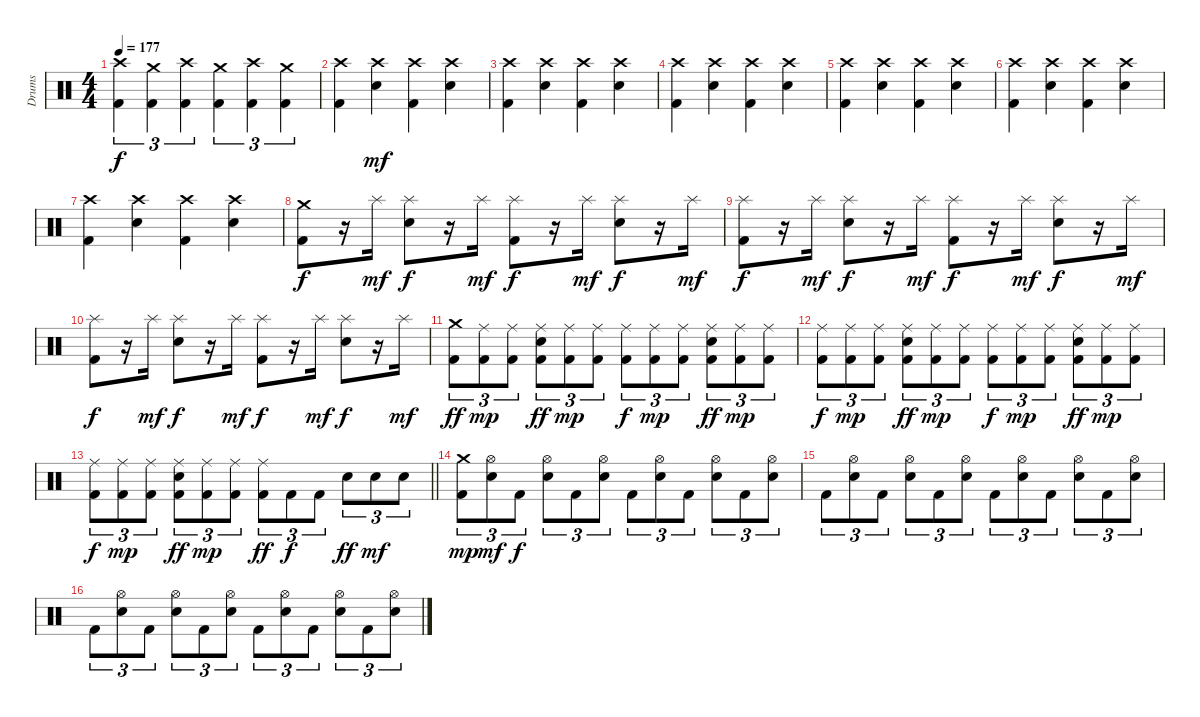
\track ("Drums" "Drums") {instrument percussion}
\staff {score}
\articulation defaults
\ts (4 4)
\tempo 177
\clef neutral
\ks c
("Crash high (hit)" "Kick (hit) 2").4{tu (3 2) dy f} ("Crash medium (hit)" "Kick (hit) 2").4{tu (3 2)} ("Crash high (hit)" "Kick (hit) 2").4{tu (3 2)} ("Crash medium (hit)" "Kick (hit) 2").4{tu (3 2)} ("Crash high (hit)" "Kick (hit) 2").4{tu (3 2)} ("Crash medium (hit)" "Kick (hit) 2").4{tu (3 2)} |
("Crash high (hit)" "Kick (hit) 2").4 ("Crash high (hit)" "Electric Snare (hit)").4{dy mf} ("Crash high (hit)" "Kick (hit) 2").4 ("Crash high (hit)" "Electric Snare (hit)").4 |
("Crash high (hit)" "Kick (hit) 2").4 ("Crash high (hit)" "Electric Snare (hit)").4 ("Crash high (hit)" "Kick (hit) 2").4 ("Crash high (hit)" "Electric Snare (hit)").4 |
("Crash high (hit)" "Kick (hit) 2").4 ("Crash high (hit)" "Electric Snare (hit)").4 ("Crash high (hit)" "Kick (hit) 2").4 ("Crash high (hit)" "Electric Snare (hit)").4 |
("Crash high (hit)" "Kick (hit) 2").4 ("Crash high (hit)" "Electric Snare (hit)").4 ("Crash high (hit)" "Kick (hit) 2").4 ("Crash high (hit)" "Electric Snare (hit)").4 |
("Crash high (hit)" "Kick (hit) 2").4 ("Crash high (hit)" "Electric Snare (hit)").4 ("Crash high (hit)" "Kick (hit) 2").4 ("Crash high (hit)" "Electric Snare (hit)").4 |
("Crash high (hit)" "Kick (hit) 2").4 ("Crash high (hit)" "Electric Snare (hit)").4 ("Crash high (hit)" "Kick (hit) 2").4 ("Crash high (hit)" "Electric Snare (hit)").4 |
("Crash medium (hit)" "Kick (hit) 2").8{dy f} r.16 "Splash (hit)".16{dy mf} ("Splash (hit)" "Electric Snare (hit)").8{dy f} r.16 "Splash (hit)".16{dy mf} ("Splash (hit)" "Kick (hit) 2").8{dy f} r.16 "Splash (hit)".16{dy mf} ("Splash (hit)" "Electric Snare (hit)").8{dy f} r.16 "Splash (hit)".16{dy mf} |
("Splash (hit)" "Kick (hit) 2").8{dy f} r.16 "Splash (hit)".16{dy mf} ("Splash (hit)" "Electric Snare (hit)").8{dy f} r.16 "Splash (hit)".16{dy mf} ("Splash (hit)" "Kick (hit) 2").8{dy f} r.16 "Splash (hit)".16{dy mf} ("Splash (hit)" "Electric Snare (hit)").8{dy f} r.16 "Splash (hit)".16{dy mf} |
("Splash (hit)" "Kick (hit) 2").8{dy f} r.16 "Splash (hit)".16{dy mf} ("Splash (hit)" "Electric Snare (hit)").8{dy f} r.16 "Splash (hit)".16{dy mf} ("Splash (hit)" "Kick (hit) 2").8{dy f} r.16 "Splash (hit)".16{dy mf} ("Splash (hit)" "Electric Snare (hit)").8{dy f} r.16 "Splash (hit)".16{dy mf} |
("Crash medium (hit)" "Kick (hit) 2").8{tu (3 2) dy ff} ("Ride (middle)" "Kick (hit) 2").8{tu (3 2) dy mp} ("Ride (middle)" "Kick (hit) 2").8{tu (3 2)} ("Ride (middle)" "Electric Snare (hit)" "Kick (hit) 2").8{tu (3 2) dy ff} ("Ride (middle)" "Kick (hit) 2").8{tu (3 2) dy mp} ("Ride (middle)" "Kick (hit) 2").8{tu (3 2)} ("Ride (middle)" "Kick (hit) 2").8{tu (3 2) dy f} ("Ride (middle)" "Kick (hit) 2").8{tu (3 2) dy mp} ("Ride (middle)" "Kick (hit) 2").8{tu (3 2)} ("Ride (middle)" "Electric Snare (hit)" "Kick (hit) 2").8{tu (3 2) dy ff} ("Ride (middle)" "Kick (hit) 2").8{tu (3 2) dy mp} ("Ride (middle)" "Kick (hit) 2").8{tu (3 2)} |
("Ride (middle)" "Kick (hit) 2").8{tu (3 2) dy f} ("Ride (middle)" "Kick (hit) 2").8{tu (3 2) dy mp} ("Ride (middle)" "Kick (hit) 2").8{tu (3 2)} ("Ride (middle)" "Electric Snare (hit)" "Kick (hit) 2").8{tu (3 2) dy ff} ("Ride (middle)" "Kick (hit) 2").8{tu (3 2) dy mp} ("Ride (middle)" "Kick (hit) 2").8{tu (3 2)} ("Ride (middle)" "Kick (hit) 2").8{tu (3 2) dy f} ("Ride (middle)" "Kick (hit) 2").8{tu (3 2) dy mp} ("Ride (middle)" "Kick (hit) 2").8{tu (3 2)} ("Ride (middle)" "Electric Snare (hit)" "Kick (hit) 2").8{tu (3 2) dy ff} ("Ride (middle)" "Kick (hit) 2").8{tu (3 2) dy mp} ("Ride (middle)" "Kick (hit) 2").8{tu (3 2)} |
\barLineRight lightlight
("Ride (middle)" "Kick (hit) 2").8{tu (3 2) dy f} ("Ride (middle)" "Kick (hit) 2").8{tu (3 2) dy mp} ("Ride (middle)" "Kick (hit) 2").8{tu (3 2)} ("Ride (middle)" "Electric Snare (hit)" "Kick (hit) 2").8{tu (3 2) dy ff} ("Ride (middle)" "Kick (hit) 2").8{tu (3 2) dy mp} ("Ride (middle)" "Kick (hit) 2").8{tu (3 2)} ("Ride (middle)" "Kick (hit) 2").8{tu (3 2) dy ff} "Kick (hit) 2".8{tu (3 2) dy f} "Kick (hit) 2".8{tu (3 2)} "Electric Snare (hit)".8{tu (3 2) dy ff} "Electric Snare (hit)".8{tu (3 2) dy mf} "Electric Snare (hit)".8{tu (3 2)} |
("Crash medium (hit)" "Kick (hit) 2").8{tu (3 2) dy mp} ("Hi-Hat (open)" "Electric Snare (hit)").8{tu (3 2) dy mf} "Kick (hit) 2".8{tu (3 2) dy f} ("Hi-Hat (open)" "Electric Snare (hit)").8{tu (3 2)} "Kick (hit) 2".8{tu (3 2)} ("Hi-Hat (open)" "Electric Snare (hit)").8{tu (3 2)} "Kick (hit) 2".8{tu (3 2)} ("Hi-Hat (open)" "Electric Snare (hit)").8{tu (3 2)} "Kick (hit) 2".8{tu (3 2)} ("Hi-Hat (open)" "Electric Snare (hit)").8{tu (3 2)} "Kick (hit) 2".8{tu (3 2)} ("Hi-Hat (open)" "Electric Snare (hit)").8{tu (3 2)} |
"Kick (hit) 2".8{tu (3 2)} ("Hi-Hat (open)" "Electric Snare (hit)").8{tu (3 2)} "Kick (hit) 2".8{tu (3 2)} ("Hi-Hat (open)" "Electric Snare (hit)").8{tu (3 2)} "Kick (hit) 2".8{tu (3 2)} ("Hi-Hat (open)" "Electric Snare (hit)").8{tu (3 2)} "Kick (hit) 2".8{tu (3 2)} ("Hi-Hat (open)" "Electric Snare (hit)").8{tu (3 2)} "Kick (hit) 2".8{tu (3 2)} ("Hi-Hat (open)" "Electric Snare (hit)").8{tu (3 2)} "Kick (hit) 2".8{tu (3 2)} ("Hi-Hat (open)" "Electric Snare (hit)").8{tu (3 2)} |
"Kick (hit) 2".8{tu (3 2)} ("Hi-Hat (open)" "Electric Snare (hit)").8{tu (3 2)} "Kick (hit) 2".8{tu (3 2)} ("Hi-Hat (open)" "Electric Snare (hit)").8{tu (3 2)} "Kick (hit) 2".8{tu (3 2)} ("Hi-Hat (open)" "Electric Snare (hit)").8{tu (3 2)} "Kick (hit) 2".8{tu (3 2)} ("Hi-Hat (open)" "Electric Snare (hit)").8{tu (3 2)} "Kick (hit) 2".8{tu (3 2)} ("Hi-Hat (open)" "Electric Snare (hit)").8{tu (3 2)} "Kick (hit) 2".8{tu (3 2)} ("Hi-Hat (open)" "Electric Snare (hit)").8{tu (3 2)}
